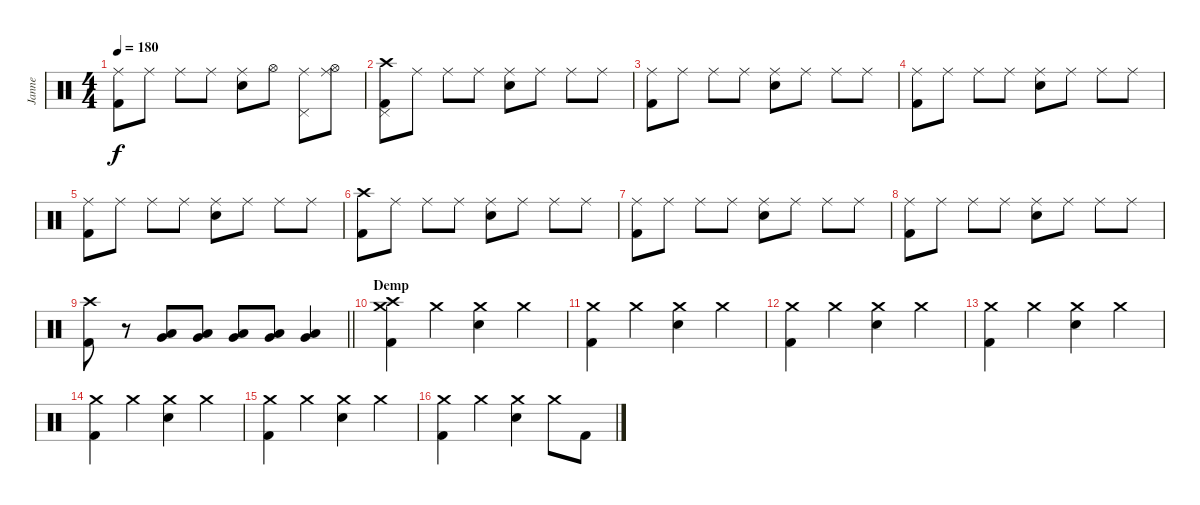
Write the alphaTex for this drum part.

\track ("Janne" "Janne") {instrument percussion}
\staff {score}
\articulation defaults
\ts (4 4)
\tempo 180
\clef neutral
\ks c
("Ride (middle)" "Kick (hit) 2").8{dy f} "Ride (middle)".8 "Ride (middle)".8 "Ride (middle)".8 ("Ride (middle)" "Electric Snare (hit)").8 "Hi-Hat (open)".8 ("Pedal Hi-Hat (hit)" "Ride (middle)").8 ("Hi-Hat (open)" "Ride (middle)").8 |
("Pedal Hi-Hat (hit)" "Crash high (hit)" "Kick (hit) 2").8 "Ride (middle)".8 "Ride (middle)".8 "Ride (middle)".8 ("Ride (middle)" "Electric Snare (hit)").8 "Ride (middle)".8 "Ride (middle)".8 "Ride (middle)".8 |
("Ride (middle)" "Kick (hit) 2").8 "Ride (middle)".8 "Ride (middle)".8 "Ride (middle)".8 ("Ride (middle)" "Electric Snare (hit)").8 "Ride (middle)".8 "Ride (middle)".8 "Ride (middle)".8 |
("Ride (middle)" "Kick (hit) 2").8 "Ride (middle)".8 "Ride (middle)".8 "Ride (middle)".8 ("Ride (middle)" "Electric Snare (hit)").8 "Ride (middle)".8 "Ride (middle)".8 "Ride (middle)".8 |
("Ride (middle)" "Kick (hit) 2").8 "Ride (middle)".8 "Ride (middle)".8 "Ride (middle)".8 ("Ride (middle)" "Electric Snare (hit)").8 "Ride (middle)".8 "Ride (middle)".8 "Ride (middle)".8 |
("Crash high (hit)" "Kick (hit) 2").8 "Ride (middle)".8 "Ride (middle)".8 "Ride (middle)".8 ("Ride (middle)" "Electric Snare (hit)").8 "Ride (middle)".8 "Ride (middle)".8 "Ride (middle)".8 |
("Ride (middle)" "Kick (hit) 2").8 "Ride (middle)".8 "Ride (middle)".8 "Ride (middle)".8 ("Ride (middle)" "Electric Snare (hit)").8 "Ride (middle)".8 "Ride (middle)".8 "Ride (middle)".8 |
("Ride (middle)" "Kick (hit) 2").8 "Ride (middle)".8 "Ride (middle)".8 "Ride (middle)".8 ("Ride (middle)" "Electric Snare (hit)").8 "Ride (middle)".8 "Ride (middle)".8 "Ride (middle)".8 |
\barLineRight lightlight
("Crash high (hit)" "Kick (hit) 2").8 r.8 ("Low Tom (hit)" "Very Low Tom (hit)").8 ("Low Tom (hit)" "Very Low Tom (hit)").8 ("Very Low Tom (hit)" "Low Floor Tom (hit)").8 ("Very Low Tom (hit)" "Low Floor Tom (hit)").8 ("Very Low Tom (hit)" "Low Floor Tom (hit)").4 |
\section ("" "Demp")
("Crash high (hit)" "Crash medium (hit)" "Kick (hit) 2").4 "Crash medium (hit)".4 ("Crash medium (hit)" "Electric Snare (hit)").4 "Crash medium (hit)".4 |
("Crash medium (hit)" "Kick (hit) 2").4 "Crash medium (hit)".4 ("Crash medium (hit)" "Electric Snare (hit)").4 "Crash medium (hit)".4 |
("Crash medium (hit)" "Kick (hit) 2").4 "Crash medium (hit)".4 ("Crash medium (hit)" "Electric Snare (hit)").4 "Crash medium (hit)".4 |
("Crash medium (hit)" "Kick (hit) 2").4 "Crash medium (hit)".4 ("Crash medium (hit)" "Electric Snare (hit)").4 "Crash medium (hit)".4 |
("Crash medium (hit)" "Kick (hit) 2").4 "Crash medium (hit)".4 ("Crash medium (hit)" "Electric Snare (hit)").4 "Crash medium (hit)".4 |
("Crash medium (hit)" "Kick (hit) 2").4 "Crash medium (hit)".4 ("Crash medium (hit)" "Electric Snare (hit)").4 "Crash medium (hit)".4 |
("Crash medium (hit)" "Kick (hit) 2").4 "Crash medium (hit)".4 ("Crash medium (hit)" "Electric Snare (hit)").4 "Crash medium (hit)".8 "Kick (hit) 2".8
